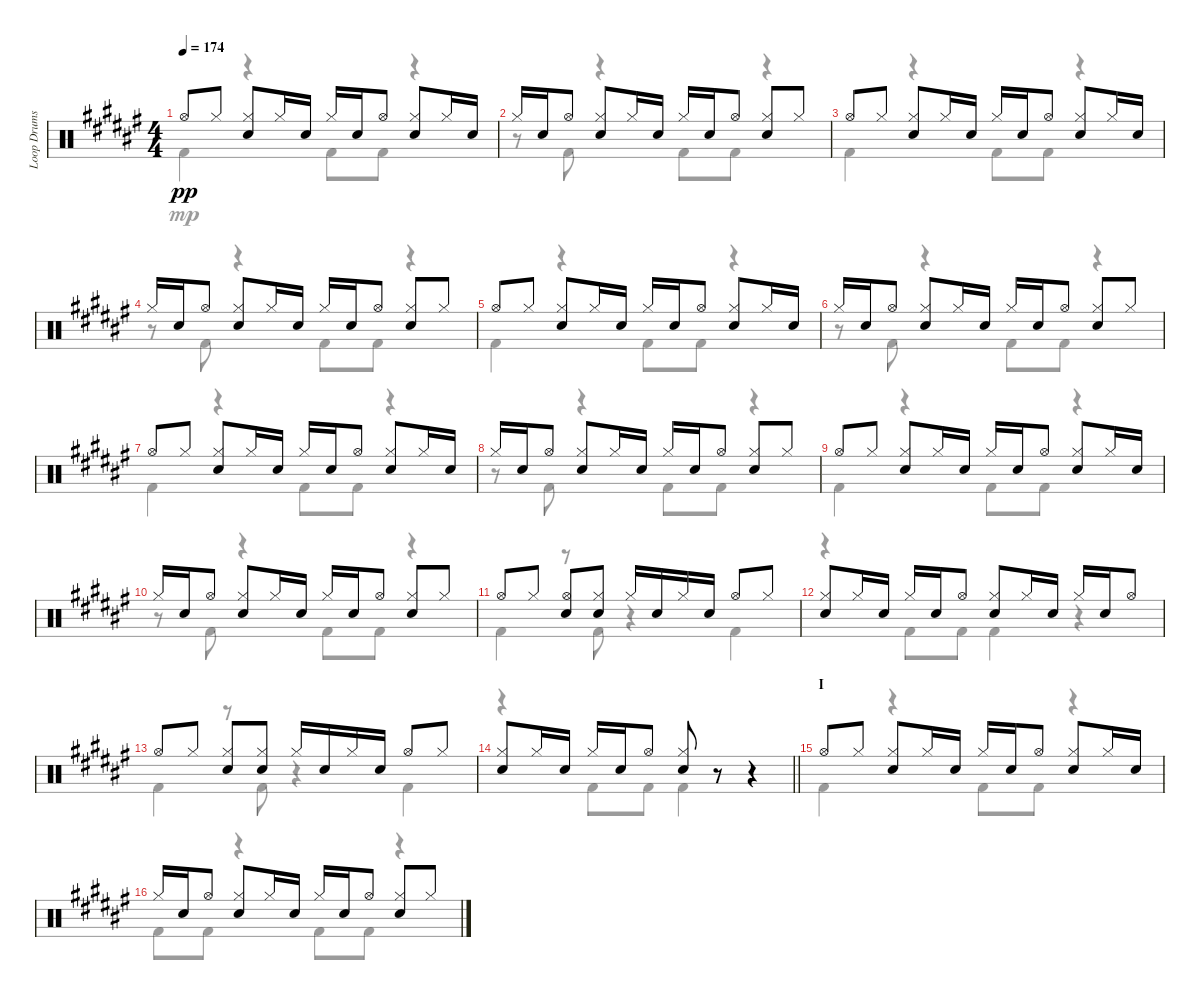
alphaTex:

\track ("Loop Drums" "Loop Drums") {instrument percussion}
\staff {score}
\articulation defaults
\voice
\ts (4 4)
\tempo 174
\clef neutral
\ks f# "Hi-Hat (open)".8{dy pp} "Hi-Hat (closed)".8
("Hi-Hat (closed)" "Electric Snare (hit)").8 "Hi-Hat (closed)".16 "Electric Snare (hit)".16 "Hi-Hat (closed)".16 "Electric Snare (hit)".16 "Hi-Hat (open)".8 ("Hi-Hat (closed)" "Electric Snare (hit)").8 "Hi-Hat (closed)".16 "Electric Snare (hit)".16 |
"Hi-Hat (closed)".16 "Electric Snare (hit)".16 "Hi-Hat (open)".8 ("Hi-Hat (closed)" "Electric Snare (hit)").8 "Hi-Hat (closed)".16 "Electric Snare (hit)".16 "Hi-Hat (closed)".16 "Electric Snare (hit)".16 "Hi-Hat (open)".8 ("Hi-Hat (closed)" "Electric Snare (hit)").8 "Hi-Hat (closed)".8 |
"Hi-Hat (open)".8 "Hi-Hat (closed)".8 ("Hi-Hat (closed)" "Electric Snare (hit)").8 "Hi-Hat (closed)".16 "Electric Snare (hit)".16 "Hi-Hat (closed)".16 "Electric Snare (hit)".16 "Hi-Hat (open)".8 ("Hi-Hat (closed)" "Electric Snare (hit)").8 "Hi-Hat (closed)".16 "Electric Snare (hit)".16 |
"Hi-Hat (closed)".16 "Electric Snare (hit)".16 "Hi-Hat (open)".8 ("Hi-Hat (closed)" "Electric Snare (hit)").8 "Hi-Hat (closed)".16 "Electric Snare (hit)".16 "Hi-Hat (closed)".16 "Electric Snare (hit)".16 "Hi-Hat (open)".8 ("Hi-Hat (closed)" "Electric Snare (hit)").8 "Hi-Hat (closed)".8 |
"Hi-Hat (open)".8 "Hi-Hat (closed)".8 ("Hi-Hat (closed)" "Electric Snare (hit)").8 "Hi-Hat (closed)".16 "Electric Snare (hit)".16 "Hi-Hat (closed)".16 "Electric Snare (hit)".16 "Hi-Hat (open)".8 ("Hi-Hat (closed)" "Electric Snare (hit)").8 "Hi-Hat (closed)".16 "Electric Snare (hit)".16 |
"Hi-Hat (closed)".16 "Electric Snare (hit)".16 "Hi-Hat (open)".8 ("Hi-Hat (closed)" "Electric Snare (hit)").8 "Hi-Hat (closed)".16 "Electric Snare (hit)".16 "Hi-Hat (closed)".16 "Electric Snare (hit)".16 "Hi-Hat (open)".8 ("Hi-Hat (closed)" "Electric Snare (hit)").8 "Hi-Hat (closed)".8 |
"Hi-Hat (open)".8 "Hi-Hat (closed)".8 ("Hi-Hat (closed)" "Electric Snare (hit)").8 "Hi-Hat (closed)".16 "Electric Snare (hit)".16 "Hi-Hat (closed)".16 "Electric Snare (hit)".16 "Hi-Hat (open)".8 ("Hi-Hat (closed)" "Electric Snare (hit)").8 "Hi-Hat (closed)".16 "Electric Snare (hit)".16 |
"Hi-Hat (closed)".16 "Electric Snare (hit)".16 "Hi-Hat (open)".8 ("Hi-Hat (closed)" "Electric Snare (hit)").8 "Hi-Hat (closed)".16 "Electric Snare (hit)".16 "Hi-Hat (closed)".16 "Electric Snare (hit)".16 "Hi-Hat (open)".8 ("Hi-Hat (closed)" "Electric Snare (hit)").8 "Hi-Hat (closed)".8 |
"Hi-Hat (open)".8 "Hi-Hat (closed)".8 ("Hi-Hat (closed)" "Electric Snare (hit)").8 "Hi-Hat (closed)".16 "Electric Snare (hit)".16 "Hi-Hat (closed)".16 "Electric Snare (hit)".16 "Hi-Hat (open)".8 ("Hi-Hat (closed)" "Electric Snare (hit)").8 "Hi-Hat (closed)".16 "Electric Snare (hit)".16 |
"Hi-Hat (closed)".16 "Electric Snare (hit)".16 "Hi-Hat (open)".8 ("Hi-Hat (closed)" "Electric Snare (hit)").8 "Hi-Hat (closed)".16 "Electric Snare (hit)".16 "Hi-Hat (closed)".16 "Electric Snare (hit)".16 "Hi-Hat (open)".8 ("Hi-Hat (closed)" "Electric Snare (hit)").8 "Hi-Hat (closed)".8 |
"Hi-Hat (open)".8 "Hi-Hat (closed)".8 ("Hi-Hat (open)" "Electric Snare (hit)").8 ("Hi-Hat (closed)" "Electric Snare (hit)").8 "Hi-Hat (closed)".16 "Electric Snare (hit)".16 "Hi-Hat (closed)".16 "Electric Snare (hit)".16 "Hi-Hat (open)".8 "Hi-Hat (closed)".8 |
("Hi-Hat (closed)" "Electric Snare (hit)").8 "Hi-Hat (closed)".16 "Electric Snare (hit)".16 "Hi-Hat (closed)".16 "Electric Snare (hit)".16 "Hi-Hat (open)".8 ("Hi-Hat (closed)" "Electric Snare (hit)").8 "Hi-Hat (closed)".16 "Electric Snare (hit)".16 "Hi-Hat (closed)".16 "Electric Snare (hit)".16 "Hi-Hat (open)".8 |
"Hi-Hat (open)".8 "Hi-Hat (closed)".8 ("Hi-Hat (closed)" "Electric Snare (hit)").8 ("Hi-Hat (closed)" "Electric Snare (hit)").8 "Hi-Hat (closed)".16 "Electric Snare (hit)".16 "Hi-Hat (closed)".16 "Electric Snare (hit)".16 "Hi-Hat (open)".8 "Hi-Hat (closed)".8 |
\barLineRight lightlight
("Hi-Hat (closed)" "Electric Snare (hit)").8 "Hi-Hat (closed)".16 "Electric Snare (hit)".16 "Hi-Hat (closed)".16 "Electric Snare (hit)".16 "Hi-Hat (open)".8 ("Hi-Hat (closed)" "Electric Snare (hit)").8 r.8 r.4 |
\section ("" "I")
"Hi-Hat (open)".8 "Hi-Hat (closed)".8 ("Hi-Hat (closed)" "Electric Snare (hit)").8 "Hi-Hat (closed)".16 "Electric Snare (hit)".16 "Hi-Hat (closed)".16 "Electric Snare (hit)".16 "Hi-Hat (open)".8 ("Hi-Hat (closed)" "Electric Snare (hit)").8 "Hi-Hat (closed)".16 "Electric Snare (hit)".16 |
"Hi-Hat (closed)".16 "Electric Snare (hit)".16 "Hi-Hat (open)".8 ("Hi-Hat (closed)" "Electric Snare (hit)").8 "Hi-Hat (closed)".16 "Electric Snare (hit)".16 "Hi-Hat (closed)".16 "Electric Snare (hit)".16 "Hi-Hat (open)".8 ("Hi-Hat (closed)" "Electric Snare (hit)").8 "Hi-Hat (closed)".8
\voice
\clef neutral
\ottava regular
\simile none
\ks f# "Kick (hit) 2".4{dy mp}
r.4 "Kick (hit) 2".8 "Kick (hit) 2".8 r.4 |
r.8 "Kick (hit) 2".8 r.4 "Kick (hit) 2".8 "Kick (hit) 2".8 r.4 |
"Kick (hit) 2".4 r.4 "Kick (hit) 2".8 "Kick (hit) 2".8 r.4 |
r.8 "Kick (hit) 2".8 r.4 "Kick (hit) 2".8 "Kick (hit) 2".8 r.4 |
"Kick (hit) 2".4 r.4 "Kick (hit) 2".8 "Kick (hit) 2".8 r.4 |
r.8 "Kick (hit) 2".8 r.4 "Kick (hit) 2".8 "Kick (hit) 2".8 r.4 |
"Kick (hit) 2".4 r.4 "Kick (hit) 2".8 "Kick (hit) 2".8 r.4 |
r.8 "Kick (hit) 2".8 r.4 "Kick (hit) 2".8 "Kick (hit) 2".8 r.4 |
"Kick (hit) 2".4 r.4 "Kick (hit) 2".8 "Kick (hit) 2".8 r.4 |
r.8 "Kick (hit) 2".8 r.4 "Kick (hit) 2".8 "Kick (hit) 2".8 r.4 |
"Kick (hit) 2".4 r.8 "Kick (hit) 2".8 r.4 "Kick (hit) 2".4 |
r.4 "Kick (hit) 2".8 "Kick (hit) 2".8 "Kick (hit) 2".4 r.4 |
"Kick (hit) 2".4 r.8 "Kick (hit) 2".8 r.4 "Kick (hit) 2".4 |
\barLineRight lightlight
r.4 "Kick (hit) 2".8 "Kick (hit) 2".8 "Kick (hit) 2".4 r.4 |
"Kick (hit) 2".4 r.4 "Kick (hit) 2".8 "Kick (hit) 2".8 r.4 |
"Kick (hit) 2".8 "Kick (hit) 2".8 r.4 "Kick (hit) 2".8 "Kick (hit) 2".8 r.4
